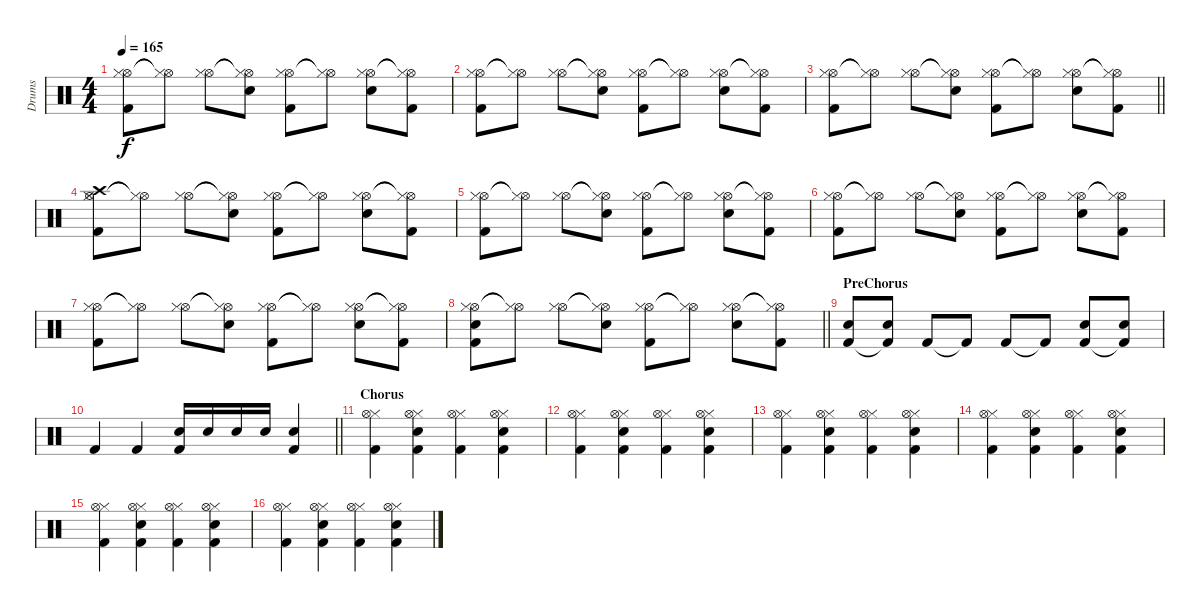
\track ("Drums" "Drums") {instrument percussion}
\staff {score}
\articulation defaults
\ts (4 4)
\tempo 165
\clef neutral
\ks c
("Hi-Hat (open)" "Hi-Hat (closed)" "Kick (hit) 2").8{dy f} ("Hi-Hat (open)"{t} "Hi-Hat (closed)"{t}).8 ("Hi-Hat (open)" "Hi-Hat (closed)").8 ("Hi-Hat (open)"{t} "Hi-Hat (closed)"{t} "Snare (hit) 2").8 ("Hi-Hat (open)" "Hi-Hat (closed)" "Kick (hit) 2").8 ("Hi-Hat (open)"{t} "Hi-Hat (closed)"{t}).8 ("Hi-Hat (open)" "Hi-Hat (closed)" "Snare (hit) 2").8 ("Hi-Hat (open)"{t} "Hi-Hat (closed)"{t} "Kick (hit) 2").8 |
("Hi-Hat (open)" "Hi-Hat (closed)" "Kick (hit) 2").8 ("Hi-Hat (open)"{t} "Hi-Hat (closed)"{t}).8 ("Hi-Hat (open)" "Hi-Hat (closed)").8 ("Hi-Hat (open)"{t} "Hi-Hat (closed)"{t} "Snare (hit) 2").8 ("Hi-Hat (open)" "Hi-Hat (closed)" "Kick (hit) 2").8 ("Hi-Hat (open)"{t} "Hi-Hat (closed)"{t}).8 ("Hi-Hat (open)" "Hi-Hat (closed)" "Snare (hit) 2").8 ("Hi-Hat (open)"{t} "Hi-Hat (closed)"{t} "Kick (hit) 2").8 |
\barLineRight lightlight
("Hi-Hat (open)" "Hi-Hat (closed)" "Kick (hit) 2").8 ("Hi-Hat (open)"{t} "Hi-Hat (closed)"{t}).8 ("Hi-Hat (open)" "Hi-Hat (closed)").8 ("Hi-Hat (open)"{t} "Hi-Hat (closed)"{t} "Snare (hit) 2").8 ("Hi-Hat (open)" "Hi-Hat (closed)" "Kick (hit) 2").8 ("Hi-Hat (open)"{t} "Hi-Hat (closed)"{t}).8 ("Hi-Hat (open)" "Hi-Hat (closed)" "Snare (hit) 2").8 ("Hi-Hat (open)"{t} "Hi-Hat (closed)"{t} "Kick (hit) 2").8 |
("Hi-Hat (open)" "Hi-Hat (closed)" "Crash high (hit)" "Kick (hit) 2").8 ("Hi-Hat (open)"{t} "Hi-Hat (closed)"{t}).8 ("Hi-Hat (open)" "Hi-Hat (closed)").8 ("Hi-Hat (open)"{t} "Hi-Hat (closed)"{t} "Snare (hit) 2").8 ("Hi-Hat (open)" "Hi-Hat (closed)" "Kick (hit) 2").8 ("Hi-Hat (open)"{t} "Hi-Hat (closed)"{t}).8 ("Hi-Hat (open)" "Hi-Hat (closed)" "Snare (hit) 2").8 ("Hi-Hat (open)"{t} "Hi-Hat (closed)"{t} "Kick (hit) 2").8 |
("Hi-Hat (open)" "Hi-Hat (closed)" "Kick (hit) 2").8 ("Hi-Hat (open)"{t} "Hi-Hat (closed)"{t}).8 ("Hi-Hat (open)" "Hi-Hat (closed)").8 ("Hi-Hat (open)"{t} "Hi-Hat (closed)"{t} "Snare (hit) 2").8 ("Hi-Hat (open)" "Hi-Hat (closed)" "Kick (hit) 2").8 ("Hi-Hat (open)"{t} "Hi-Hat (closed)"{t}).8 ("Hi-Hat (open)" "Hi-Hat (closed)" "Snare (hit) 2").8 ("Hi-Hat (open)"{t} "Hi-Hat (closed)"{t} "Kick (hit) 2").8 |
("Hi-Hat (open)" "Hi-Hat (closed)" "Kick (hit) 2").8 ("Hi-Hat (open)"{t} "Hi-Hat (closed)"{t}).8 ("Hi-Hat (open)" "Hi-Hat (closed)").8 ("Hi-Hat (open)"{t} "Hi-Hat (closed)"{t} "Snare (hit) 2").8 ("Hi-Hat (open)" "Hi-Hat (closed)" "Kick (hit) 2").8 ("Hi-Hat (open)"{t} "Hi-Hat (closed)"{t}).8 ("Hi-Hat (open)" "Hi-Hat (closed)" "Snare (hit) 2").8 ("Hi-Hat (open)"{t} "Hi-Hat (closed)"{t} "Kick (hit) 2").8 |
("Hi-Hat (open)" "Hi-Hat (closed)" "Kick (hit) 2").8 ("Hi-Hat (open)"{t} "Hi-Hat (closed)"{t}).8 ("Hi-Hat (open)" "Hi-Hat (closed)").8 ("Hi-Hat (open)"{t} "Hi-Hat (closed)"{t} "Snare (hit) 2").8 ("Hi-Hat (open)" "Hi-Hat (closed)" "Kick (hit) 2").8 ("Hi-Hat (open)"{t} "Hi-Hat (closed)"{t}).8 ("Hi-Hat (open)" "Hi-Hat (closed)" "Snare (hit) 2").8 ("Hi-Hat (open)"{t} "Hi-Hat (closed)"{t} "Kick (hit) 2").8 |
\barLineRight lightlight
("Hi-Hat (open)" "Hi-Hat (closed)" "Snare (hit) 2" "Kick (hit) 2").8 ("Hi-Hat (open)"{t} "Hi-Hat (closed)"{t}).8 ("Hi-Hat (open)" "Hi-Hat (closed)").8 ("Hi-Hat (open)"{t} "Hi-Hat (closed)"{t} "Snare (hit) 2").8 ("Hi-Hat (open)" "Hi-Hat (closed)" "Kick (hit) 2").8 ("Hi-Hat (open)"{t} "Hi-Hat (closed)"{t}).8 ("Hi-Hat (open)" "Hi-Hat (closed)" "Snare (hit) 2").8 ("Hi-Hat (open)"{t} "Hi-Hat (closed)"{t} "Kick (hit) 2").8 |
\section ("" "PreChorus")
("Snare (hit) 2" "Kick (hit) 2").8 ("Snare (hit) 2" "Kick (hit) 2"{t}).8 "Kick (hit) 2".8 "Kick (hit) 2"{t}.8 "Kick (hit) 2".8 "Kick (hit) 2"{t}.8 ("Snare (hit) 2" "Kick (hit) 2").8 ("Snare (hit) 2" "Kick (hit) 2"{t}).8 |
\barLineRight lightlight "Kick (hit) 2".4 "Kick (hit) 2".4
("Snare (hit) 2" "Kick (hit) 2").16 "Snare (hit) 2".16 "Snare (hit) 2".16 "Snare (hit) 2".16 ("Snare (hit) 2" "Kick (hit) 2").4 |
\section ("" "Chorus")
("Hi-Hat (closed)" "Hi-Hat (open)" "Kick (hit) 2").4 ("Hi-Hat (closed)" "Hi-Hat (open)" "Snare (hit) 2" "Kick (hit) 2").4 ("Hi-Hat (closed)" "Hi-Hat (open)" "Kick (hit) 2").4 ("Hi-Hat (closed)" "Hi-Hat (open)" "Snare (hit) 2" "Kick (hit) 2").4 |
("Hi-Hat (closed)" "Hi-Hat (open)" "Kick (hit) 2").4 ("Hi-Hat (closed)" "Hi-Hat (open)" "Snare (hit) 2" "Kick (hit) 2").4 ("Hi-Hat (closed)" "Hi-Hat (open)" "Kick (hit) 2").4 ("Hi-Hat (closed)" "Hi-Hat (open)" "Snare (hit) 2" "Kick (hit) 2").4 |
("Hi-Hat (closed)" "Hi-Hat (open)" "Kick (hit) 2").4 ("Hi-Hat (closed)" "Hi-Hat (open)" "Snare (hit) 2" "Kick (hit) 2").4 ("Hi-Hat (closed)" "Hi-Hat (open)" "Kick (hit) 2").4 ("Hi-Hat (closed)" "Hi-Hat (open)" "Snare (hit) 2" "Kick (hit) 2").4 |
("Hi-Hat (closed)" "Hi-Hat (open)" "Kick (hit) 2").4 ("Hi-Hat (closed)" "Hi-Hat (open)" "Snare (hit) 2" "Kick (hit) 2").4 ("Hi-Hat (closed)" "Hi-Hat (open)" "Kick (hit) 2").4 ("Hi-Hat (closed)" "Hi-Hat (open)" "Snare (hit) 2" "Kick (hit) 2").4 |
("Hi-Hat (closed)" "Hi-Hat (open)" "Kick (hit) 2").4 ("Hi-Hat (closed)" "Hi-Hat (open)" "Snare (hit) 2" "Kick (hit) 2").4 ("Hi-Hat (closed)" "Hi-Hat (open)" "Kick (hit) 2").4 ("Hi-Hat (closed)" "Hi-Hat (open)" "Snare (hit) 2" "Kick (hit) 2").4 |
("Hi-Hat (closed)" "Hi-Hat (open)" "Kick (hit) 2").4 ("Hi-Hat (closed)" "Hi-Hat (open)" "Snare (hit) 2" "Kick (hit) 2").4 ("Hi-Hat (closed)" "Hi-Hat (open)" "Kick (hit) 2").4 ("Hi-Hat (closed)" "Hi-Hat (open)" "Snare (hit) 2" "Kick (hit) 2").4
